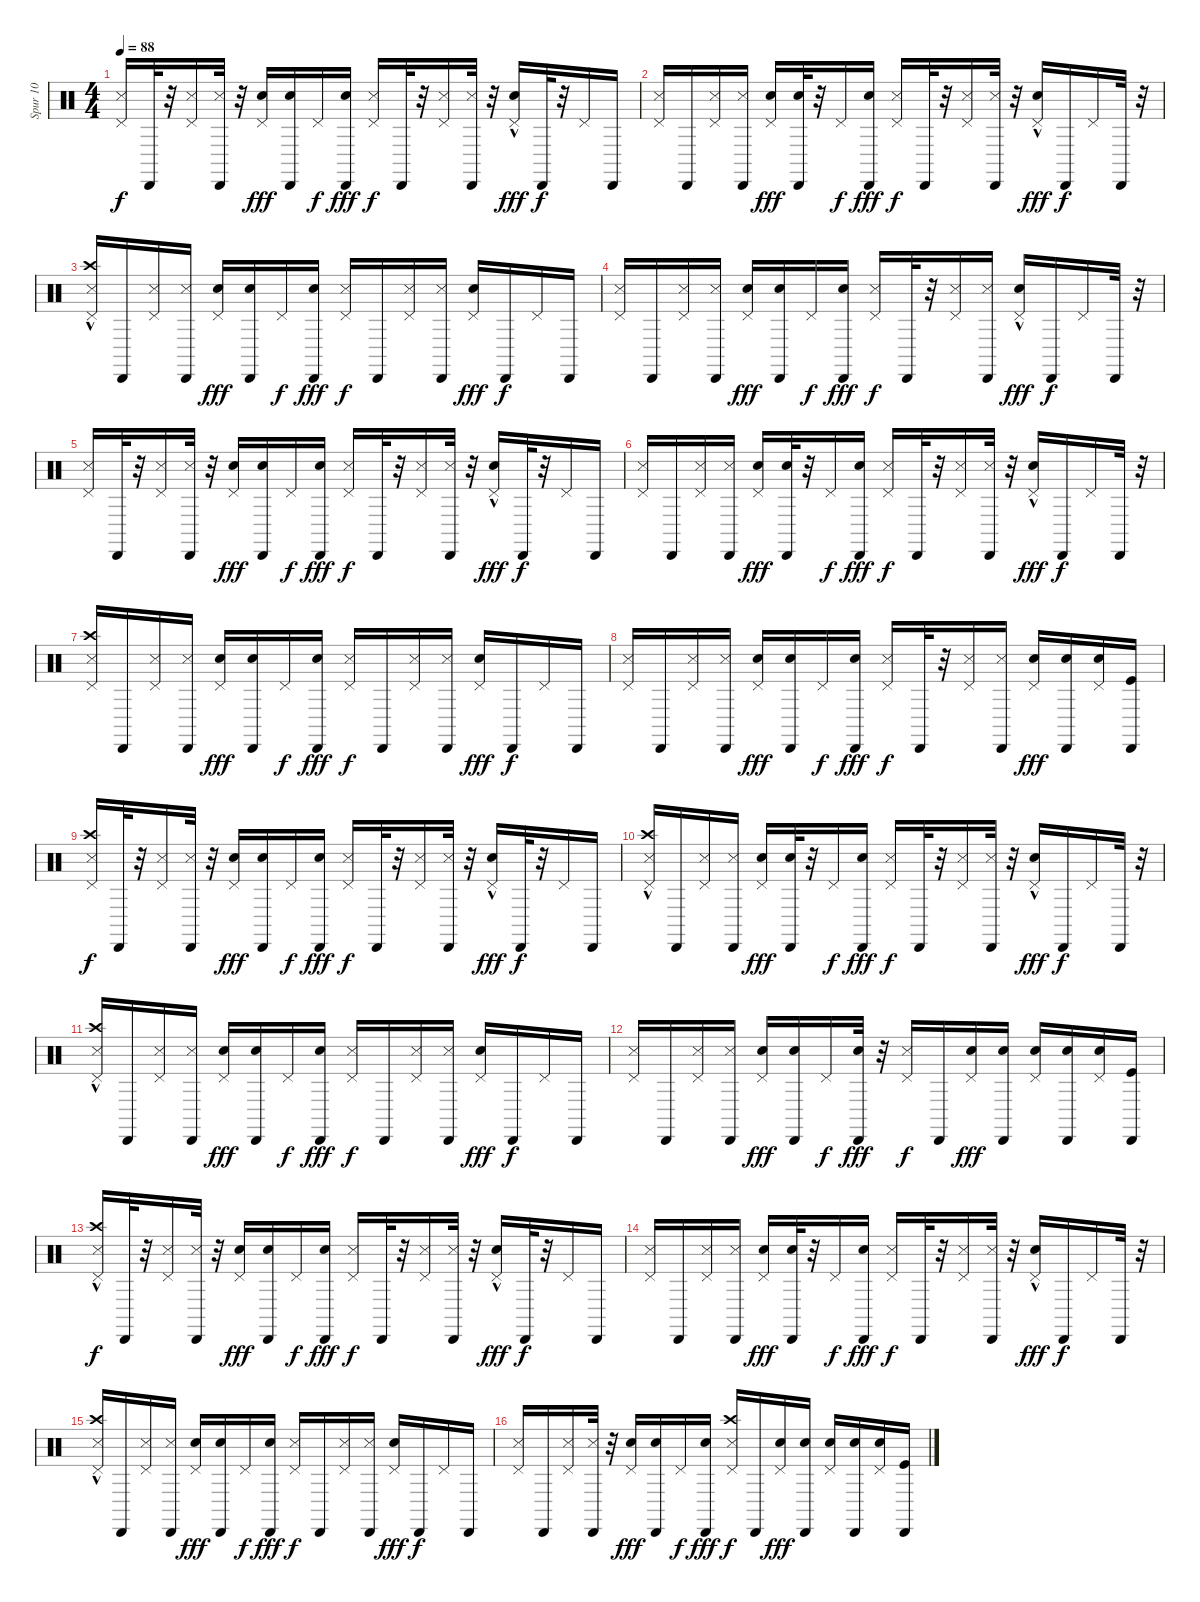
\track ("Spur 10" "Spur 10") {instrument percussion}
\staff {score}
\articulation defaults
\ts (4 4)
\tempo 88
\clef neutral
\ks c
("Pedal Hi-Hat (hit)" "Metronome (hit)").16{dy f} "Cabasa (hit)".32 r.32 ("Pedal Hi-Hat (hit)" "Metronome (hit)").16 ("Cabasa (hit)" "Metronome (hit)").32 r.32 ("Pedal Hi-Hat (hit)" "Electric Snare (hit)").16{dy fff} ("Cabasa (hit)" "Electric Snare (hit)").16 "Pedal Hi-Hat (hit)".16{dy f} ("Cabasa (hit)" "Electric Snare (hit)").16{dy fff} ("Pedal Hi-Hat (hit)" "Metronome (hit)").16{dy f} "Cabasa (hit)".32 r.32 ("Pedal Hi-Hat (hit)" "Metronome (hit)").16 ("Cabasa (hit)" "Metronome (hit)").32 r.32 ("Pedal Hi-Hat (hit)" "Electric Snare (hit)"{hac}).16{dy fff} "Cabasa (hit)".32{dy f} r.32 "Pedal Hi-Hat (hit)".16 "Cabasa (hit)".16 |
("Pedal Hi-Hat (hit)" "Metronome (hit)").16 "Cabasa (hit)".16 ("Pedal Hi-Hat (hit)" "Metronome (hit)").16 ("Cabasa (hit)" "Metronome (hit)").16 ("Pedal Hi-Hat (hit)" "Electric Snare (hit)").16{dy fff} ("Cabasa (hit)" "Electric Snare (hit)").32 r.32 "Pedal Hi-Hat (hit)".16{dy f} ("Cabasa (hit)" "Electric Snare (hit)").16{dy fff} ("Pedal Hi-Hat (hit)" "Metronome (hit)").16{dy f} "Cabasa (hit)".32 r.32 ("Pedal Hi-Hat (hit)" "Metronome (hit)").16 ("Cabasa (hit)" "Metronome (hit)").32 r.32 ("Pedal Hi-Hat (hit)" "Electric Snare (hit)"{hac}).16{dy fff} "Cabasa (hit)".16{dy f} "Pedal Hi-Hat (hit)".16 "Cabasa (hit)".32 r.32 |
("Pedal Hi-Hat (hit)" "Metronome (hit)" "Crash high (hit)"{hac}).16 "Cabasa (hit)".16 ("Pedal Hi-Hat (hit)" "Metronome (hit)").16 ("Cabasa (hit)" "Metronome (hit)").16 ("Pedal Hi-Hat (hit)" "Electric Snare (hit)").16{dy fff} ("Cabasa (hit)" "Electric Snare (hit)").16 "Pedal Hi-Hat (hit)".16{dy f} ("Cabasa (hit)" "Electric Snare (hit)").16{dy fff} ("Pedal Hi-Hat (hit)" "Metronome (hit)").16{dy f} "Cabasa (hit)".16 ("Pedal Hi-Hat (hit)" "Metronome (hit)").16 ("Cabasa (hit)" "Metronome (hit)").16 ("Pedal Hi-Hat (hit)" "Electric Snare (hit)").16{dy fff} "Cabasa (hit)".16{dy f} "Pedal Hi-Hat (hit)".16 "Cabasa (hit)".16 |
("Pedal Hi-Hat (hit)" "Metronome (hit)").16 "Cabasa (hit)".16 ("Metronome (hit)" "Pedal Hi-Hat (hit)").16 ("Metronome (hit)" "Cabasa (hit)").16 ("Pedal Hi-Hat (hit)" "Electric Snare (hit)").16{dy fff} ("Cabasa (hit)" "Electric Snare (hit)").16 "Pedal Hi-Hat (hit)".16{dy f} ("Cabasa (hit)" "Electric Snare (hit)").16{dy fff} ("Metronome (hit)" "Pedal Hi-Hat (hit)").16{dy f} "Cabasa (hit)".32 r.32 ("Pedal Hi-Hat (hit)" "Metronome (hit)").16 ("Cabasa (hit)" "Metronome (hit)").16 ("Pedal Hi-Hat (hit)" "Electric Snare (hit)"{hac}).16{dy fff} "Cabasa (hit)".16{dy f} "Pedal Hi-Hat (hit)".16 "Cabasa (hit)".32 r.32 |
("Pedal Hi-Hat (hit)" "Metronome (hit)").16 "Cabasa (hit)".32 r.32 ("Pedal Hi-Hat (hit)" "Metronome (hit)").16 ("Cabasa (hit)" "Metronome (hit)").32 r.32 ("Pedal Hi-Hat (hit)" "Electric Snare (hit)").16{dy fff} ("Cabasa (hit)" "Electric Snare (hit)").16 "Pedal Hi-Hat (hit)".16{dy f} ("Cabasa (hit)" "Electric Snare (hit)").16{dy fff} ("Pedal Hi-Hat (hit)" "Metronome (hit)").16{dy f} "Cabasa (hit)".32 r.32 ("Pedal Hi-Hat (hit)" "Metronome (hit)").16 ("Cabasa (hit)" "Metronome (hit)").32 r.32 ("Pedal Hi-Hat (hit)" "Electric Snare (hit)"{hac}).16{dy fff} "Cabasa (hit)".32{dy f} r.32 "Pedal Hi-Hat (hit)".16 "Cabasa (hit)".16 |
("Pedal Hi-Hat (hit)" "Metronome (hit)").16 "Cabasa (hit)".16 ("Pedal Hi-Hat (hit)" "Metronome (hit)").16 ("Cabasa (hit)" "Metronome (hit)").16 ("Pedal Hi-Hat (hit)" "Electric Snare (hit)").16{dy fff} ("Cabasa (hit)" "Electric Snare (hit)").32 r.32 "Pedal Hi-Hat (hit)".16{dy f} ("Cabasa (hit)" "Electric Snare (hit)").16{dy fff} ("Pedal Hi-Hat (hit)" "Metronome (hit)").16{dy f} "Cabasa (hit)".32 r.32 ("Pedal Hi-Hat (hit)" "Metronome (hit)").16 ("Cabasa (hit)" "Metronome (hit)").32 r.32 ("Pedal Hi-Hat (hit)" "Electric Snare (hit)"{hac}).16{dy fff} "Cabasa (hit)".16{dy f} "Pedal Hi-Hat (hit)".16 "Cabasa (hit)".32 r.32 |
("Pedal Hi-Hat (hit)" "Metronome (hit)" "Crash high (hit)").16 "Cabasa (hit)".16 ("Pedal Hi-Hat (hit)" "Metronome (hit)").16 ("Cabasa (hit)" "Metronome (hit)").16 ("Pedal Hi-Hat (hit)" "Electric Snare (hit)").16{dy fff} ("Cabasa (hit)" "Electric Snare (hit)").16 "Pedal Hi-Hat (hit)".16{dy f} ("Cabasa (hit)" "Electric Snare (hit)").16{dy fff} ("Pedal Hi-Hat (hit)" "Metronome (hit)").16{dy f} "Cabasa (hit)".16 ("Pedal Hi-Hat (hit)" "Metronome (hit)").16 ("Cabasa (hit)" "Metronome (hit)").16 ("Pedal Hi-Hat (hit)" "Electric Snare (hit)").16{dy fff} "Cabasa (hit)".16{dy f} "Pedal Hi-Hat (hit)".16 "Cabasa (hit)".16 |
("Pedal Hi-Hat (hit)" "Metronome (hit)").16 "Cabasa (hit)".16 ("Metronome (hit)" "Pedal Hi-Hat (hit)").16 ("Metronome (hit)" "Cabasa (hit)").16 ("Pedal Hi-Hat (hit)" "Electric Snare (hit)").16{dy fff} ("Cabasa (hit)" "Electric Snare (hit)").16 "Pedal Hi-Hat (hit)".16{dy f} ("Cabasa (hit)" "Electric Snare (hit)").16{dy fff} ("Metronome (hit)" "Pedal Hi-Hat (hit)").16{dy f} "Cabasa (hit)".32 r.32 ("Pedal Hi-Hat (hit)" "Metronome (hit)").16 ("Cabasa (hit)" "Metronome (hit)").16 ("Pedal Hi-Hat (hit)" "Electric Snare (hit)").16{dy fff} ("Cabasa (hit)" "Electric Snare (hit)").16 ("Pedal Hi-Hat (hit)" "Electric Snare (hit)").16 ("Cabasa (hit)" "Kick (hit)").16 |
("Pedal Hi-Hat (hit)" "Metronome (hit)" "Crash high (hit)").16{dy f} "Cabasa (hit)".32 r.32 ("Pedal Hi-Hat (hit)" "Metronome (hit)").16 ("Cabasa (hit)" "Metronome (hit)").32 r.32 ("Pedal Hi-Hat (hit)" "Electric Snare (hit)").16{dy fff} ("Cabasa (hit)" "Electric Snare (hit)").16 "Pedal Hi-Hat (hit)".16{dy f} ("Cabasa (hit)" "Electric Snare (hit)").16{dy fff} ("Pedal Hi-Hat (hit)" "Metronome (hit)").16{dy f} "Cabasa (hit)".32 r.32 ("Pedal Hi-Hat (hit)" "Metronome (hit)").16 ("Cabasa (hit)" "Metronome (hit)").32 r.32 ("Pedal Hi-Hat (hit)" "Electric Snare (hit)"{hac}).16{dy fff} "Cabasa (hit)".32{dy f} r.32 "Pedal Hi-Hat (hit)".16 "Cabasa (hit)".16 |
("Pedal Hi-Hat (hit)" "Metronome (hit)" "Crash high (hit)"{hac}).16 "Cabasa (hit)".16 ("Pedal Hi-Hat (hit)" "Metronome (hit)").16 ("Cabasa (hit)" "Metronome (hit)").16 ("Pedal Hi-Hat (hit)" "Electric Snare (hit)").16{dy fff} ("Cabasa (hit)" "Electric Snare (hit)").32 r.32 "Pedal Hi-Hat (hit)".16{dy f} ("Cabasa (hit)" "Electric Snare (hit)").16{dy fff} ("Pedal Hi-Hat (hit)" "Metronome (hit)").16{dy f} "Cabasa (hit)".32 r.32 ("Pedal Hi-Hat (hit)" "Metronome (hit)").16 ("Cabasa (hit)" "Metronome (hit)").32 r.32 ("Pedal Hi-Hat (hit)" "Electric Snare (hit)"{hac}).16{dy fff} "Cabasa (hit)".16{dy f} "Pedal Hi-Hat (hit)".16 "Cabasa (hit)".32 r.32 |
("Pedal Hi-Hat (hit)" "Metronome (hit)" "Crash high (hit)"{hac}).16 "Cabasa (hit)".16 ("Pedal Hi-Hat (hit)" "Metronome (hit)").16 ("Cabasa (hit)" "Metronome (hit)").16 ("Pedal Hi-Hat (hit)" "Electric Snare (hit)").16{dy fff} ("Cabasa (hit)" "Electric Snare (hit)").16 "Pedal Hi-Hat (hit)".16{dy f} ("Cabasa (hit)" "Electric Snare (hit)").16{dy fff} ("Pedal Hi-Hat (hit)" "Metronome (hit)").16{dy f} "Cabasa (hit)".16 ("Pedal Hi-Hat (hit)" "Metronome (hit)").16 ("Cabasa (hit)" "Metronome (hit)").16 ("Pedal Hi-Hat (hit)" "Electric Snare (hit)").16{dy fff} "Cabasa (hit)".16{dy f} "Pedal Hi-Hat (hit)".16 "Cabasa (hit)".16 |
("Pedal Hi-Hat (hit)" "Metronome (hit)").16 "Cabasa (hit)".16 ("Metronome (hit)" "Pedal Hi-Hat (hit)").16 ("Metronome (hit)" "Cabasa (hit)").16 ("Pedal Hi-Hat (hit)" "Electric Snare (hit)").16{dy fff} ("Cabasa (hit)" "Electric Snare (hit)").16 "Pedal Hi-Hat (hit)".16{dy f} ("Cabasa (hit)" "Electric Snare (hit)").32{dy fff} r.32 ("Metronome (hit)" "Pedal Hi-Hat (hit)").16{dy f} "Cabasa (hit)".16 ("Pedal Hi-Hat (hit)" "Electric Snare (hit)").16{dy fff} ("Cabasa (hit)" "Electric Snare (hit)").16 ("Pedal Hi-Hat (hit)" "Electric Snare (hit)").16 ("Cabasa (hit)" "Electric Snare (hit)").16 ("Pedal Hi-Hat (hit)" "Electric Snare (hit)").16 ("Cabasa (hit)" "Kick (hit)").16 |
("Pedal Hi-Hat (hit)" "Metronome (hit)" "Crash high (hit)"{hac}).16{dy f} "Cabasa (hit)".32 r.32 ("Pedal Hi-Hat (hit)" "Metronome (hit)").16 ("Cabasa (hit)" "Metronome (hit)").32 r.32 ("Pedal Hi-Hat (hit)" "Electric Snare (hit)").16{dy fff} ("Cabasa (hit)" "Electric Snare (hit)").16 "Pedal Hi-Hat (hit)".16{dy f} ("Cabasa (hit)" "Electric Snare (hit)").16{dy fff} ("Pedal Hi-Hat (hit)" "Metronome (hit)").16{dy f} "Cabasa (hit)".32 r.32 ("Pedal Hi-Hat (hit)" "Metronome (hit)").16 ("Cabasa (hit)" "Metronome (hit)").32 r.32 ("Pedal Hi-Hat (hit)" "Electric Snare (hit)"{hac}).16{dy fff} "Cabasa (hit)".32{dy f} r.32 "Pedal Hi-Hat (hit)".16 "Cabasa (hit)".16 |
("Pedal Hi-Hat (hit)" "Metronome (hit)").16 "Cabasa (hit)".16 ("Pedal Hi-Hat (hit)" "Metronome (hit)").16 ("Cabasa (hit)" "Metronome (hit)").16 ("Pedal Hi-Hat (hit)" "Electric Snare (hit)").16{dy fff} ("Cabasa (hit)" "Electric Snare (hit)").32 r.32 "Pedal Hi-Hat (hit)".16{dy f} ("Cabasa (hit)" "Electric Snare (hit)").16{dy fff} ("Pedal Hi-Hat (hit)" "Metronome (hit)").16{dy f} "Cabasa (hit)".32 r.32 ("Pedal Hi-Hat (hit)" "Metronome (hit)").16 ("Cabasa (hit)" "Metronome (hit)").32 r.32 ("Pedal Hi-Hat (hit)" "Electric Snare (hit)"{hac}).16{dy fff} "Cabasa (hit)".16{dy f} "Pedal Hi-Hat (hit)".16 "Cabasa (hit)".32 r.32 |
("Pedal Hi-Hat (hit)" "Metronome (hit)" "Crash high (hit)"{hac}).16 "Cabasa (hit)".16 ("Pedal Hi-Hat (hit)" "Metronome (hit)").16 ("Cabasa (hit)" "Metronome (hit)").16 ("Pedal Hi-Hat (hit)" "Electric Snare (hit)").16{dy fff} ("Cabasa (hit)" "Electric Snare (hit)").16 "Pedal Hi-Hat (hit)".16{dy f} ("Cabasa (hit)" "Electric Snare (hit)").16{dy fff} ("Pedal Hi-Hat (hit)" "Metronome (hit)").16{dy f} "Cabasa (hit)".16 ("Pedal Hi-Hat (hit)" "Metronome (hit)").16 ("Cabasa (hit)" "Metronome (hit)").16 ("Pedal Hi-Hat (hit)" "Electric Snare (hit)").16{dy fff} "Cabasa (hit)".16{dy f} "Pedal Hi-Hat (hit)".16 "Cabasa (hit)".16 |
("Pedal Hi-Hat (hit)" "Metronome (hit)").16 "Cabasa (hit)".16 ("Metronome (hit)" "Pedal Hi-Hat (hit)").16 ("Metronome (hit)" "Cabasa (hit)").32 r.32 ("Pedal Hi-Hat (hit)" "Electric Snare (hit)").16{dy fff} ("Cabasa (hit)" "Electric Snare (hit)").16 "Pedal Hi-Hat (hit)".16{dy f} ("Cabasa (hit)" "Electric Snare (hit)").16{dy fff} ("Metronome (hit)" "Pedal Hi-Hat (hit)" "Crash high (hit)").16{dy f} "Cabasa (hit)".16 ("Pedal Hi-Hat (hit)" "Electric Snare (hit)").16{dy fff} ("Cabasa (hit)" "Electric Snare (hit)").16 ("Pedal Hi-Hat (hit)" "Electric Snare (hit)").16 ("Cabasa (hit)" "Electric Snare (hit)").16 ("Pedal Hi-Hat (hit)" "Electric Snare (hit)").16 ("Cabasa (hit)" "Kick (hit)").16
